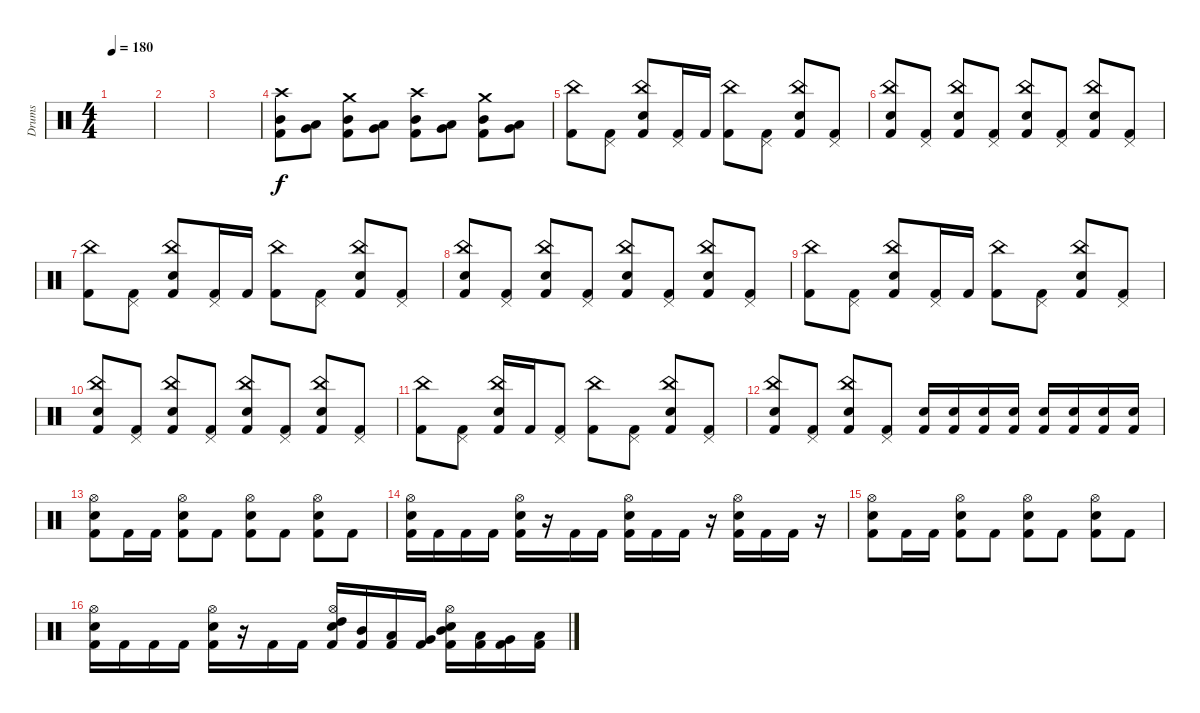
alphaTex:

\track ("Drums" "Drums") {instrument percussion}
\staff {score}
\articulation defaults
\ts (4 4)
\tempo 180
\clef neutral
\ks c
|
|
|
("Crash high (hit)" "Mid Tom (hit)" "Kick (hit) 2").8 ("Very Low Tom (hit)" "Low Floor Tom (hit)").8 ("Crash medium (hit)" "Mid Tom (hit)" "Kick (hit) 2").8 ("Very Low Tom (hit)" "Low Floor Tom (hit)").8 ("Crash high (hit)" "Mid Tom (hit)" "Kick (hit) 2").8 ("Very Low Tom (hit)" "Low Floor Tom (hit)").8 ("Crash medium (hit)" "Mid Tom (hit)" "Kick (hit) 2").8 ("Very Low Tom (hit)" "Low Floor Tom (hit)").8 |
("China (hit)" "Kick (hit) 2").8 ("Pedal Hi-Hat (hit)" "Kick (hit) 2").8 ("China (hit)" "Snare (hit) 2" "Kick (hit) 2").8 ("Pedal Hi-Hat (hit)" "Kick (hit) 2").16 "Kick (hit) 2".16 ("China (hit)" "Kick (hit) 2").8 ("Pedal Hi-Hat (hit)" "Kick (hit) 2").8 ("China (hit)" "Snare (hit) 2" "Kick (hit) 2").8 ("Pedal Hi-Hat (hit)" "Kick (hit) 2").8 |
("China (hit)" "Snare (hit) 2" "Kick (hit) 2").8 ("Pedal Hi-Hat (hit)" "Kick (hit) 2").8 ("China (hit)" "Snare (hit) 2" "Kick (hit) 2").8 ("Pedal Hi-Hat (hit)" "Kick (hit) 2").8 ("China (hit)" "Snare (hit) 2" "Kick (hit) 2").8 ("Pedal Hi-Hat (hit)" "Kick (hit) 2").8 ("China (hit)" "Snare (hit) 2" "Kick (hit) 2").8 ("Pedal Hi-Hat (hit)" "Kick (hit) 2").8 |
("China (hit)" "Kick (hit) 2").8 ("Pedal Hi-Hat (hit)" "Kick (hit) 2").8 ("China (hit)" "Snare (hit) 2" "Kick (hit) 2").8 ("Pedal Hi-Hat (hit)" "Kick (hit) 2").16 "Kick (hit) 2".16 ("China (hit)" "Kick (hit) 2").8 ("Pedal Hi-Hat (hit)" "Kick (hit) 2").8 ("China (hit)" "Snare (hit) 2" "Kick (hit) 2").8 ("Pedal Hi-Hat (hit)" "Kick (hit) 2").8 |
("China (hit)" "Snare (hit) 2" "Kick (hit) 2").8 ("Pedal Hi-Hat (hit)" "Kick (hit) 2").8 ("China (hit)" "Snare (hit) 2" "Kick (hit) 2").8 ("Pedal Hi-Hat (hit)" "Kick (hit) 2").8 ("China (hit)" "Snare (hit) 2" "Kick (hit) 2").8 ("Pedal Hi-Hat (hit)" "Kick (hit) 2").8 ("China (hit)" "Snare (hit) 2" "Kick (hit) 2").8 ("Pedal Hi-Hat (hit)" "Kick (hit) 2").8 |
("China (hit)" "Kick (hit) 2").8 ("Pedal Hi-Hat (hit)" "Kick (hit) 2").8 ("China (hit)" "Snare (hit) 2" "Kick (hit) 2").8 ("Pedal Hi-Hat (hit)" "Kick (hit) 2").16 "Kick (hit) 2".16 ("China (hit)" "Kick (hit) 2").8 ("Pedal Hi-Hat (hit)" "Kick (hit) 2").8 ("China (hit)" "Snare (hit) 2" "Kick (hit) 2").8 ("Pedal Hi-Hat (hit)" "Kick (hit) 2").8 |
("China (hit)" "Snare (hit) 2" "Kick (hit) 2").8 ("Pedal Hi-Hat (hit)" "Kick (hit) 2").8 ("China (hit)" "Snare (hit) 2" "Kick (hit) 2").8 ("Pedal Hi-Hat (hit)" "Kick (hit) 2").8 ("China (hit)" "Snare (hit) 2" "Kick (hit) 2").8 ("Pedal Hi-Hat (hit)" "Kick (hit) 2").8 ("China (hit)" "Snare (hit) 2" "Kick (hit) 2").8 ("Pedal Hi-Hat (hit)" "Kick (hit) 2").8 |
("China (hit)" "Kick (hit) 2").8 ("Pedal Hi-Hat (hit)" "Kick (hit) 2").8 ("China (hit)" "Snare (hit) 2" "Kick (hit) 2").16 "Kick (hit) 2".16 ("Pedal Hi-Hat (hit)" "Kick (hit) 2").8 ("China (hit)" "Kick (hit) 2").8 ("Pedal Hi-Hat (hit)" "Kick (hit) 2").8 ("China (hit)" "Snare (hit) 2" "Kick (hit) 2").8 ("Pedal Hi-Hat (hit)" "Kick (hit) 2").8 |
("China (hit)" "Snare (hit) 2" "Kick (hit) 2").8 ("Pedal Hi-Hat (hit)" "Kick (hit) 2").8 ("China (hit)" "Snare (hit) 2" "Kick (hit) 2").8 ("Pedal Hi-Hat (hit)" "Kick (hit) 2").8 ("Snare (hit) 2" "Kick (hit) 2").16 ("Snare (hit) 2" "Kick (hit) 2").16 ("Snare (hit) 2" "Kick (hit) 2").16 ("Snare (hit) 2" "Kick (hit) 2").16 ("Snare (hit) 2" "Kick (hit) 2").16 ("Snare (hit) 2" "Kick (hit) 2").16 ("Snare (hit) 2" "Kick (hit) 2").16 ("Snare (hit) 2" "Kick (hit) 2").16 |
("Hi-Hat (open)" "Snare (hit) 2" "Kick (hit) 2").8 "Kick (hit) 2".16 "Kick (hit) 2".16 ("Hi-Hat (open)" "Snare (hit) 2" "Kick (hit) 2").8 "Kick (hit) 2".8 ("Hi-Hat (open)" "Snare (hit) 2" "Kick (hit) 2").8 "Kick (hit) 2".8 ("Hi-Hat (open)" "Snare (hit) 2" "Kick (hit) 2").8 "Kick (hit) 2".8 |
("Hi-Hat (open)" "Snare (hit) 2" "Kick (hit) 2").16 "Kick (hit) 2".16 "Kick (hit) 2".16 "Kick (hit) 2".16 ("Hi-Hat (open)" "Snare (hit) 2" "Kick (hit) 2").16 r.16 "Kick (hit) 2".16 "Kick (hit) 2".16 ("Hi-Hat (open)" "Snare (hit) 2" "Kick (hit) 2").16 "Kick (hit) 2".16 "Kick (hit) 2".16 r.16 ("Hi-Hat (open)" "Snare (hit) 2" "Kick (hit) 2").16 "Kick (hit) 2".16 "Kick (hit) 2".16 r.16 |
("Hi-Hat (open)" "Snare (hit) 2" "Kick (hit) 2").8 "Kick (hit) 2".16 "Kick (hit) 2".16 ("Hi-Hat (open)" "Snare (hit) 2" "Kick (hit) 2").8 "Kick (hit) 2".8 ("Hi-Hat (open)" "Snare (hit) 2" "Kick (hit) 2").8 "Kick (hit) 2".8 ("Hi-Hat (open)" "Snare (hit) 2" "Kick (hit) 2").8 "Kick (hit) 2".8 |
("Hi-Hat (open)" "Snare (hit) 2" "Kick (hit) 2").16 "Kick (hit) 2".16 "Kick (hit) 2".16 "Kick (hit) 2".16 ("Hi-Hat (open)" "Snare (hit) 2" "Kick (hit) 2").16 r.16 "Kick (hit) 2".16 "Kick (hit) 2".16 ("Hi-Hat (open)" "High Tom (hit)" "Snare (hit) 2" "Kick (hit) 2").16 ("Mid Tom (hit)" "Kick (hit) 2").16 ("Low Tom (hit)" "Kick (hit) 2").16 ("Very Low Tom (hit)" "Kick (hit) 2").16 ("Hi-Hat (open)" "Mid Tom (hit)" "Snare (hit) 2" "Kick (hit) 2").16 ("Low Tom (hit)" "Kick (hit) 2").16 ("Very Low Tom (hit)" "Kick (hit) 2").16 ("Low Floor Tom (hit)" "Kick (hit) 2").16
